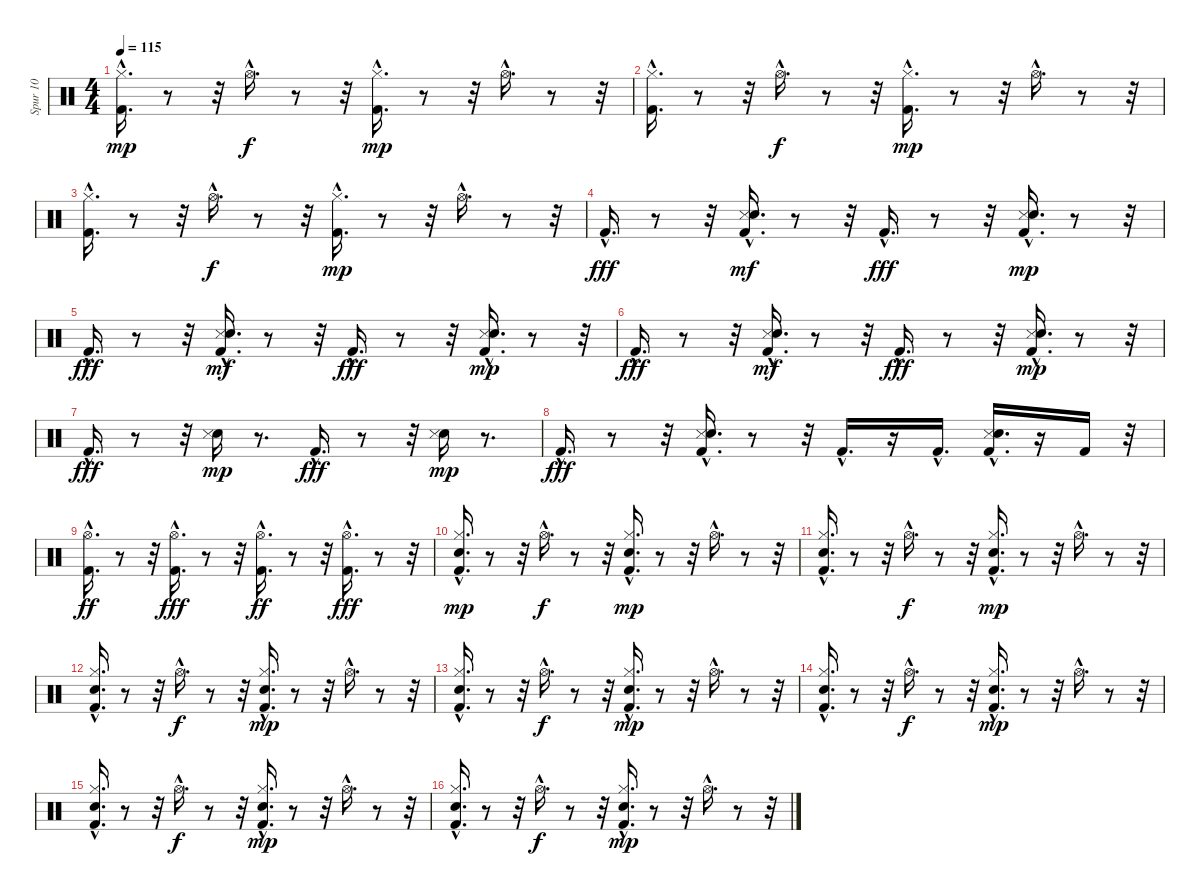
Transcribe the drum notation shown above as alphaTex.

\track ("Spur 10" "Spur 10") {instrument percussion}
\staff {score}
\articulation defaults
\ts (4 4)
\tempo 115
\clef neutral
\ks c
("Kick (hit) 2"{hac} "Hi-Hat (closed)"{hac}).16{d dy mp} r.8 r.32 "Hi-Hat (open)"{hac}.16{d dy f} r.8 r.32 ("Kick (hit) 2"{hac} "Hi-Hat (closed)"{hac}).16{d dy mp} r.8 r.32 "Hi-Hat (open)"{hac}.16{d} r.8 r.32 |
("Kick (hit) 2"{hac} "Hi-Hat (closed)"{hac}).16{d} r.8 r.32 "Hi-Hat (open)"{hac}.16{d dy f} r.8 r.32 ("Kick (hit) 2"{hac} "Hi-Hat (closed)"{hac}).16{d dy mp} r.8 r.32 "Hi-Hat (open)"{hac}.16{d} r.8 r.32 |
("Kick (hit) 2"{hac} "Hi-Hat (closed)"{hac}).16{d} r.8 r.32 "Hi-Hat (open)"{hac}.16{d dy f} r.8 r.32 ("Kick (hit) 2"{hac} "Hi-Hat (closed)"{hac}).16{d dy mp} r.8 r.32 "Hi-Hat (open)"{hac}.16{d} r.8 r.32 |
"Kick (hit) 2"{hac}.16{d dy fff} r.8 r.32 ("Kick (hit) 2"{hac} "Snare (side stick) 3"{hac} "Snare (hit) 2"{hac}).16{d dy mf} r.8 r.32 "Kick (hit) 2"{hac}.16{d dy fff} r.8 r.32 ("Kick (hit) 2"{hac} "Snare (side stick) 3"{hac} "Snare (hit) 2"{hac}).16{d dy mp} r.8 r.32 |
"Kick (hit) 2"{hac}.16{d dy fff} r.8 r.32 ("Kick (hit) 2"{hac} "Snare (side stick) 3"{hac} "Snare (hit) 2"{hac}).16{d dy mf} r.8 r.32 "Kick (hit) 2"{hac}.16{d dy fff} r.8 r.32 ("Kick (hit) 2"{hac} "Snare (side stick) 3"{hac} "Snare (hit) 2"{hac}).16{d dy mp} r.8 r.32 |
"Kick (hit) 2"{hac}.16{d dy fff} r.8 r.32 ("Kick (hit) 2"{hac} "Snare (side stick) 3"{hac} "Snare (hit) 2"{hac}).16{d dy mf} r.8 r.32 "Kick (hit) 2"{hac}.16{d dy fff} r.8 r.32 ("Kick (hit) 2"{hac} "Snare (side stick) 3"{hac} "Snare (hit) 2"{hac}).16{d dy mp} r.8 r.32 |
"Kick (hit) 2"{hac}.16{d dy fff} r.8 r.32 ("Snare (hit) 2" "Snare (side stick) 3").16{dy mp} r.8{d} "Kick (hit) 2"{hac}.16{d dy fff} r.8 r.32 ("Snare (hit) 2" "Snare (side stick) 3").16{dy mp} r.8{d} |
"Kick (hit) 2"{hac}.16{d dy fff} r.8 r.32 ("Snare (side stick) 3" "Snare (hit) 2" "Kick (hit) 2"{hac}).16{d} r.8 r.32 "Kick (hit) 2"{hac}.16{d} r.16 "Kick (hit) 2"{hac}.16{d} ("Snare (side stick) 3" "Snare (hit) 2" "Kick (hit) 2"{hac}).16{d} r.16 "Kick (hit) 2".16 r.32 |
("Kick (hit) 2"{hac} "Hi-Hat (open)"{hac}).16{d dy ff} r.8 r.32 ("Kick (hit) 2"{hac} "Hi-Hat (open)"{hac}).16{d dy fff} r.8 r.32 ("Kick (hit) 2"{hac} "Hi-Hat (open)"{hac}).16{d dy ff} r.8 r.32 ("Kick (hit) 2"{hac} "Hi-Hat (open)"{hac}).16{d dy fff} r.8 r.32 |
("Kick (hit) 2"{hac} "Hi-Hat (closed)"{hac} "Snare (hit) 2"{hac}).16{d dy mp} r.8 r.32 "Hi-Hat (open)"{hac}.16{d dy f} r.8 r.32 ("Kick (hit) 2"{hac} "Hi-Hat (closed)"{hac} "Snare (hit) 2"{hac}).16{d dy mp} r.8 r.32 "Hi-Hat (open)"{hac}.16{d} r.8 r.32 |
("Kick (hit) 2"{hac} "Hi-Hat (closed)"{hac} "Snare (hit) 2"{hac}).16{d} r.8 r.32 "Hi-Hat (open)"{hac}.16{d dy f} r.8 r.32 ("Kick (hit) 2"{hac} "Hi-Hat (closed)"{hac} "Snare (hit) 2"{hac}).16{d dy mp} r.8 r.32 "Hi-Hat (open)"{hac}.16{d} r.8 r.32 |
("Kick (hit) 2"{hac} "Hi-Hat (closed)"{hac} "Snare (hit) 2"{hac}).16{d} r.8 r.32 "Hi-Hat (open)"{hac}.16{d dy f} r.8 r.32 ("Kick (hit) 2"{hac} "Hi-Hat (closed)"{hac} "Snare (hit) 2"{hac}).16{d dy mp} r.8 r.32 "Hi-Hat (open)"{hac}.16{d} r.8 r.32 |
("Kick (hit) 2"{hac} "Hi-Hat (closed)"{hac} "Snare (hit) 2"{hac}).16{d} r.8 r.32 "Hi-Hat (open)"{hac}.16{d dy f} r.8 r.32 ("Kick (hit) 2"{hac} "Hi-Hat (closed)"{hac} "Snare (hit) 2"{hac}).16{d dy mp} r.8 r.32 "Hi-Hat (open)"{hac}.16{d} r.8 r.32 |
("Kick (hit) 2"{hac} "Hi-Hat (closed)"{hac} "Snare (hit) 2"{hac}).16{d} r.8 r.32 "Hi-Hat (open)"{hac}.16{d dy f} r.8 r.32 ("Kick (hit) 2"{hac} "Hi-Hat (closed)"{hac} "Snare (hit) 2"{hac}).16{d dy mp} r.8 r.32 "Hi-Hat (open)"{hac}.16{d} r.8 r.32 |
("Kick (hit) 2"{hac} "Hi-Hat (closed)"{hac} "Snare (hit) 2"{hac}).16{d} r.8 r.32 "Hi-Hat (open)"{hac}.16{d dy f} r.8 r.32 ("Kick (hit) 2"{hac} "Hi-Hat (closed)"{hac} "Snare (hit) 2"{hac}).16{d dy mp} r.8 r.32 "Hi-Hat (open)"{hac}.16{d} r.8 r.32 |
("Kick (hit) 2"{hac} "Hi-Hat (closed)"{hac} "Snare (hit) 2"{hac}).16{d} r.8 r.32 "Hi-Hat (open)"{hac}.16{d dy f} r.8 r.32 ("Kick (hit) 2"{hac} "Hi-Hat (closed)"{hac} "Snare (hit) 2"{hac}).16{d dy mp} r.8 r.32 "Hi-Hat (open)"{hac}.16{d} r.8 r.32
